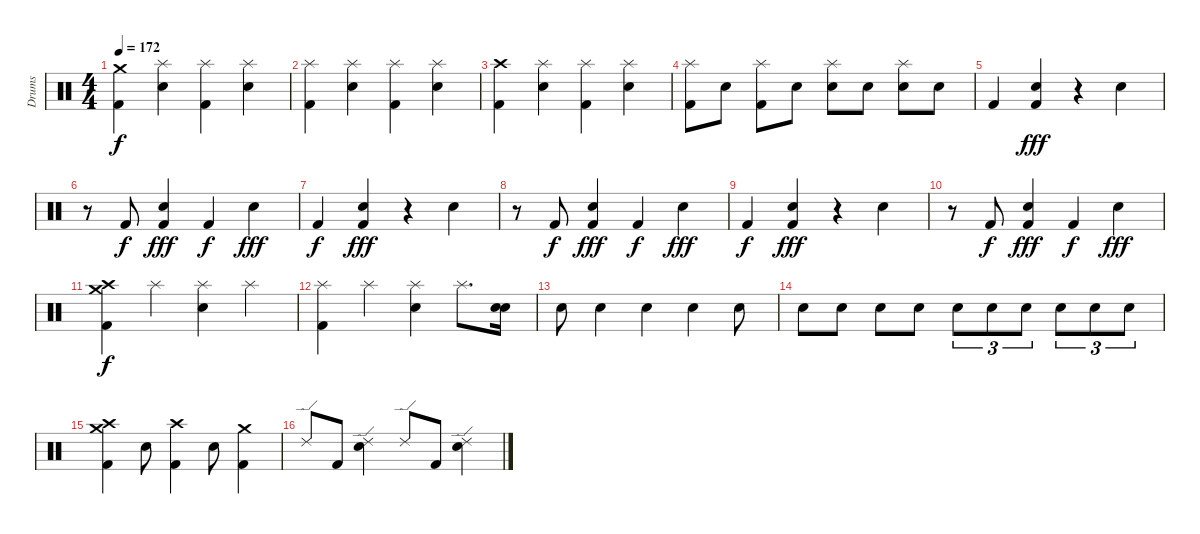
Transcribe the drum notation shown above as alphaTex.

\track ("Drums" "Drums") {instrument percussion}
\staff {score}
\articulation defaults
\ts (4 4)
\tempo 172
\clef neutral
\ks c
("Kick (hit) 2" "Crash medium (hit)").4{dy f} ("Snare (hit) 2" "Splash (hit)").4 ("Kick (hit) 2" "Splash (hit)").4 ("Splash (hit)" "Snare (hit) 2").4 |
("Splash (hit)" "Kick (hit) 2").4 ("Splash (hit)" "Snare (hit) 2").4 ("Splash (hit)" "Kick (hit) 2").4 ("Splash (hit)" "Snare (hit) 2").4 |
("Kick (hit) 2" "Crash high (hit)").4 ("Splash (hit)" "Snare (hit) 2").4 ("Splash (hit)" "Kick (hit) 2").4 ("Splash (hit)" "Snare (hit) 2").4 |
("Splash (hit)" "Kick (hit) 2").8 "Snare (hit) 2".8 ("Splash (hit)" "Kick (hit) 2").8 "Snare (hit) 2".8 ("Splash (hit)" "Snare (hit) 2").8 "Snare (hit) 2".8 ("Splash (hit)" "Snare (hit) 2").8 "Snare (hit) 2".8 |
"Kick (hit) 2".4 ("Snare (hit) 2" "Kick (hit) 2").4{dy fff} r.4 "Snare (hit) 2".4 |
r.8 "Kick (hit) 2".8{dy f} ("Snare (hit) 2" "Kick (hit) 2").4{dy fff} "Kick (hit) 2".4{dy f} "Snare (hit) 2".4{dy fff} |
"Kick (hit) 2".4{dy f} ("Snare (hit) 2" "Kick (hit) 2").4{dy fff} r.4 "Snare (hit) 2".4 |
r.8 "Kick (hit) 2".8{dy f} ("Snare (hit) 2" "Kick (hit) 2").4{dy fff} "Kick (hit) 2".4{dy f} "Snare (hit) 2".4{dy fff} |
"Kick (hit) 2".4{dy f} ("Snare (hit) 2" "Kick (hit) 2").4{dy fff} r.4 "Snare (hit) 2".4 |
r.8 "Kick (hit) 2".8{dy f} ("Snare (hit) 2" "Kick (hit) 2").4{dy fff} "Kick (hit) 2".4{dy f} "Snare (hit) 2".4{dy fff} |
("Kick (hit) 2" "Crash high (hit)" "Crash medium (hit)").4{dy f} "Splash (hit)".4 ("Splash (hit)" "Snare (hit) 2").4 "Splash (hit)".4 |
("Splash (hit)" "Kick (hit) 2").4 "Splash (hit)".4 ("Splash (hit)" "Snare (hit) 2").4 "Splash (hit)".8{d} ("Snare (hit) 2" "Snare (hit) 2").16 |
"Snare (hit) 2".8 "Snare (hit) 2".4 "Snare (hit) 2".4 "Snare (hit) 2".4 "Snare (hit) 2".8 |
"Snare (hit) 2".8 "Snare (hit) 2".8 "Snare (hit) 2".8 "Snare (hit) 2".8 "Snare (hit) 2".8{tu (3 2)} "Snare (hit) 2".8{tu (3 2)} "Snare (hit) 2".8{tu (3 2)} "Snare (hit) 2".8{tu (3 2)} "Snare (hit) 2".8{tu (3 2)} "Snare (hit) 2".8{tu (3 2)} |
("Crash high (hit)" "Crash medium (hit)" "Kick (hit) 2").4 "Snare (hit) 2".8 ("Crash high (hit)" "Kick (hit) 2").4 "Snare (hit) 2".8 ("Crash medium (hit)" "Kick (hit) 2").4 |
"Ride (edge) 2".8 "Kick (hit) 2".8 ("Ride (edge) 2" "Snare (hit) 2").4 "Ride (edge) 2".8 "Kick (hit) 2".8 ("Ride (edge) 2" "Snare (hit) 2").4
